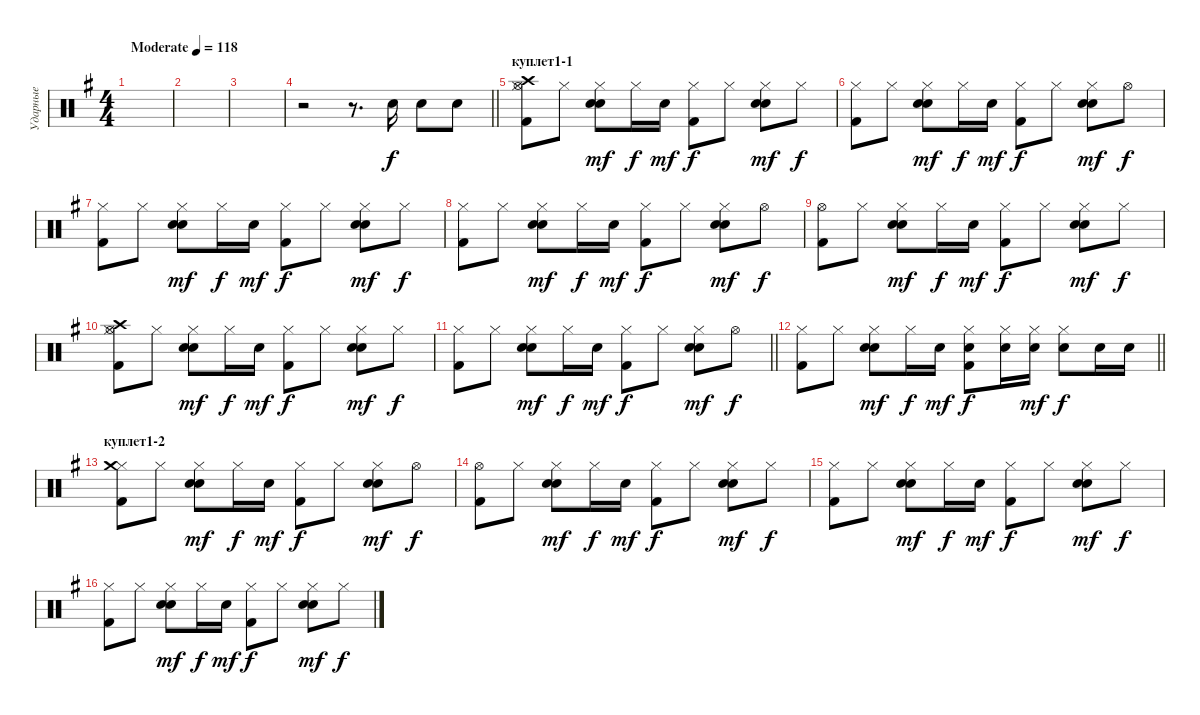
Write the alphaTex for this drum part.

\track ("Ударные" "Ударные") {instrument percussion}
\staff {score}
\articulation defaults
\ts (4 4)
\tempo (118 "Moderate")
\clef neutral
\ks eminor
|
|
|
\barLineRight lightlight
r.2 r.8{d} "Snare (hit) 2".16 "Snare (hit) 2".8 "Snare (hit) 2".8 |
\section ("" "куплет1-1")
("Hi-Hat (closed)" "Crash high (hit)" "Kick (hit) 2" "Hi-Hat (open)").8{dy f} "Hi-Hat (closed)".8 ("Hi-Hat (closed)" "Electric Snare (hit)" "Snare (hit) 2").8{dy mf} "Hi-Hat (closed)".16{dy f} "Snare (hit) 2".16{dy mf} ("Hi-Hat (closed)" "Kick (hit) 2").8{dy f} "Hi-Hat (closed)".8 ("Hi-Hat (closed)" "Electric Snare (hit)" "Snare (hit) 2").8{dy mf} "Hi-Hat (closed)".8{dy f} |
("Hi-Hat (closed)" "Kick (hit) 2").8 "Hi-Hat (closed)".8 ("Hi-Hat (closed)" "Electric Snare (hit)" "Snare (hit) 2").8{dy mf} "Hi-Hat (closed)".16{dy f} "Snare (hit) 2".16{dy mf} ("Hi-Hat (closed)" "Kick (hit) 2").8{dy f} "Hi-Hat (closed)".8 ("Hi-Hat (closed)" "Electric Snare (hit)" "Snare (hit) 2").8{dy mf} "Hi-Hat (open)".8{dy f} |
("Hi-Hat (closed)" "Kick (hit) 2").8 "Hi-Hat (closed)".8 ("Hi-Hat (closed)" "Electric Snare (hit)" "Snare (hit) 2").8{dy mf} "Hi-Hat (closed)".16{dy f} "Snare (hit) 2".16{dy mf} ("Hi-Hat (closed)" "Kick (hit) 2").8{dy f} "Hi-Hat (closed)".8 ("Hi-Hat (closed)" "Electric Snare (hit)" "Snare (hit) 2").8{dy mf} "Hi-Hat (closed)".8{dy f} |
("Hi-Hat (closed)" "Kick (hit) 2").8 "Hi-Hat (closed)".8 ("Hi-Hat (closed)" "Electric Snare (hit)" "Snare (hit) 2").8{dy mf} "Hi-Hat (closed)".16{dy f} "Snare (hit) 2".16{dy mf} ("Hi-Hat (closed)" "Kick (hit) 2").8{dy f} "Hi-Hat (closed)".8 ("Hi-Hat (closed)" "Electric Snare (hit)" "Snare (hit) 2").8{dy mf} "Hi-Hat (open)".8{dy f} |
("Hi-Hat (open)" "Kick (hit) 2").8 "Hi-Hat (closed)".8 ("Hi-Hat (closed)" "Electric Snare (hit)" "Snare (hit) 2").8{dy mf} "Hi-Hat (closed)".16{dy f} "Snare (hit) 2".16{dy mf} ("Hi-Hat (closed)" "Kick (hit) 2").8{dy f} "Hi-Hat (closed)".8 ("Hi-Hat (closed)" "Electric Snare (hit)" "Snare (hit) 2").8{dy mf} "Hi-Hat (closed)".8{dy f} |
("Hi-Hat (closed)" "Crash high (hit)" "Kick (hit) 2" "Hi-Hat (open)").8 "Hi-Hat (closed)".8 ("Hi-Hat (closed)" "Electric Snare (hit)" "Snare (hit) 2").8{dy mf} "Hi-Hat (closed)".16{dy f} "Snare (hit) 2".16{dy mf} ("Hi-Hat (closed)" "Kick (hit) 2").8{dy f} "Hi-Hat (closed)".8 ("Hi-Hat (closed)" "Electric Snare (hit)" "Snare (hit) 2").8{dy mf} "Hi-Hat (closed)".8{dy f} |
\barLineRight lightlight
("Hi-Hat (closed)" "Kick (hit) 2").8 "Hi-Hat (closed)".8 ("Hi-Hat (closed)" "Electric Snare (hit)" "Snare (hit) 2").8{dy mf} "Hi-Hat (closed)".16{dy f} "Snare (hit) 2".16{dy mf} ("Hi-Hat (closed)" "Kick (hit) 2").8{dy f} "Hi-Hat (closed)".8 ("Hi-Hat (closed)" "Electric Snare (hit)" "Snare (hit) 2").8{dy mf} "Hi-Hat (open)".8{dy f} |
\section ("" "")
\barLineRight lightlight
("Hi-Hat (closed)" "Kick (hit) 2").8 "Hi-Hat (closed)".8 ("Hi-Hat (closed)" "Electric Snare (hit)" "Snare (hit) 2").8{dy mf} "Hi-Hat (closed)".16{dy f} "Snare (hit) 2".16{dy mf} ("Hi-Hat (closed)" "Kick (hit) 2" "Snare (hit) 2").8{dy f} ("Hi-Hat (closed)" "Snare (hit) 2").16 ("Hi-Hat (closed)" "Snare (hit) 2").16{dy mf} ("Hi-Hat (closed)" "Snare (hit) 2").8{dy f} "Snare (hit) 2".16 "Snare (hit) 2".16 |
\section ("" "куплет1-2")
("Hi-Hat (closed)" "Kick (hit) 2" "Crash medium (hit)").8 "Hi-Hat (closed)".8 ("Hi-Hat (closed)" "Electric Snare (hit)" "Snare (hit) 2").8{dy mf} "Hi-Hat (closed)".16{dy f} "Snare (hit) 2".16{dy mf} ("Hi-Hat (closed)" "Kick (hit) 2").8{dy f} "Hi-Hat (closed)".8 ("Hi-Hat (closed)" "Electric Snare (hit)" "Snare (hit) 2").8{dy mf} "Hi-Hat (open)".8{dy f} |
("Hi-Hat (open)" "Kick (hit) 2").8 "Hi-Hat (closed)".8 ("Hi-Hat (closed)" "Electric Snare (hit)" "Snare (hit) 2").8{dy mf} "Hi-Hat (closed)".16{dy f} "Snare (hit) 2".16{dy mf} ("Hi-Hat (closed)" "Kick (hit) 2").8{dy f} "Hi-Hat (closed)".8 ("Hi-Hat (closed)" "Electric Snare (hit)" "Snare (hit) 2").8{dy mf} "Hi-Hat (closed)".8{dy f} |
("Hi-Hat (closed)" "Kick (hit) 2").8 "Hi-Hat (closed)".8 ("Hi-Hat (closed)" "Electric Snare (hit)" "Snare (hit) 2").8{dy mf} "Hi-Hat (closed)".16{dy f} "Snare (hit) 2".16{dy mf} ("Hi-Hat (closed)" "Kick (hit) 2").8{dy f} "Hi-Hat (closed)".8 ("Hi-Hat (closed)" "Electric Snare (hit)" "Snare (hit) 2").8{dy mf} "Hi-Hat (closed)".8{dy f} |
("Hi-Hat (closed)" "Kick (hit) 2").8 "Hi-Hat (closed)".8 ("Hi-Hat (closed)" "Electric Snare (hit)" "Snare (hit) 2").8{dy mf} "Hi-Hat (closed)".16{dy f} "Snare (hit) 2".16{dy mf} ("Hi-Hat (closed)" "Kick (hit) 2").8{dy f} "Hi-Hat (closed)".8 ("Hi-Hat (closed)" "Electric Snare (hit)" "Snare (hit) 2").8{dy mf} "Hi-Hat (closed)".8{dy f}
